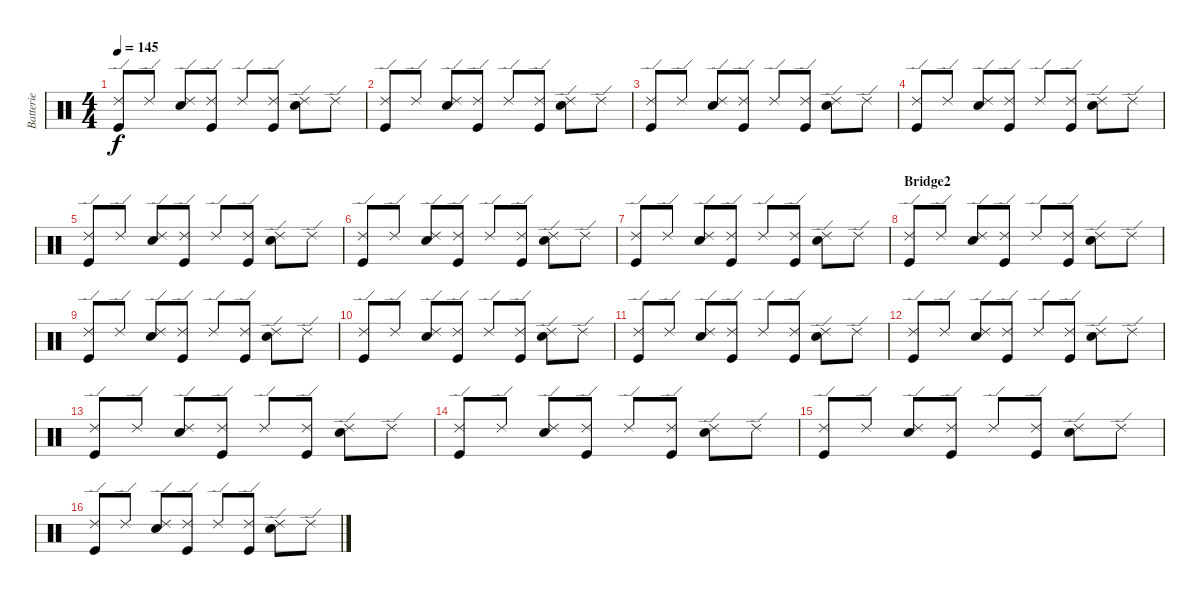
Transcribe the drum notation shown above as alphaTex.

\track ("Batterie" "Batterie") {instrument percussion}
\staff {score}
\articulation defaults
\ts (4 4)
\tempo 145
\clef neutral
\ks c
("Ride (edge) 2" "Kick (hit)").8{dy f} "Ride (edge) 2".8 ("Ride (edge) 2" "Snare (hit) 2").8 ("Ride (edge) 2" "Kick (hit)").8 "Ride (edge) 2".8 ("Ride (edge) 2" "Kick (hit)").8 ("Ride (edge) 2" "Snare (hit) 2").8 "Ride (edge) 2".8 |
("Ride (edge) 2" "Kick (hit)").8 "Ride (edge) 2".8 ("Ride (edge) 2" "Snare (hit) 2").8 ("Ride (edge) 2" "Kick (hit)").8 "Ride (edge) 2".8 ("Ride (edge) 2" "Kick (hit)").8 ("Ride (edge) 2" "Snare (hit) 2").8 "Ride (edge) 2".8 |
("Ride (edge) 2" "Kick (hit)").8 "Ride (edge) 2".8 ("Ride (edge) 2" "Snare (hit) 2").8 ("Ride (edge) 2" "Kick (hit)").8 "Ride (edge) 2".8 ("Ride (edge) 2" "Kick (hit)").8 ("Ride (edge) 2" "Snare (hit) 2").8 "Ride (edge) 2".8 |
("Ride (edge) 2" "Kick (hit)").8 "Ride (edge) 2".8 ("Ride (edge) 2" "Snare (hit) 2").8 ("Ride (edge) 2" "Kick (hit)").8 "Ride (edge) 2".8 ("Ride (edge) 2" "Kick (hit)").8 ("Ride (edge) 2" "Snare (hit) 2").8 "Ride (edge) 2".8 |
("Ride (edge) 2" "Kick (hit)").8 "Ride (edge) 2".8 ("Ride (edge) 2" "Snare (hit) 2").8 ("Ride (edge) 2" "Kick (hit)").8 "Ride (edge) 2".8 ("Ride (edge) 2" "Kick (hit)").8 ("Ride (edge) 2" "Snare (hit) 2").8 "Ride (edge) 2".8 |
("Ride (edge) 2" "Kick (hit)").8 "Ride (edge) 2".8 ("Ride (edge) 2" "Snare (hit) 2").8 ("Ride (edge) 2" "Kick (hit)").8 "Ride (edge) 2".8 ("Ride (edge) 2" "Kick (hit)").8 ("Ride (edge) 2" "Snare (hit) 2").8 "Ride (edge) 2".8 |
("Ride (edge) 2" "Kick (hit)").8 "Ride (edge) 2".8 ("Ride (edge) 2" "Snare (hit) 2").8 ("Ride (edge) 2" "Kick (hit)").8 "Ride (edge) 2".8 ("Ride (edge) 2" "Kick (hit)").8 ("Ride (edge) 2" "Snare (hit) 2").8 "Ride (edge) 2".8 |
\section ("" "Bridge2")
("Ride (edge) 2" "Kick (hit)").8 "Ride (edge) 2".8 ("Ride (edge) 2" "Snare (hit) 2").8 ("Ride (edge) 2" "Kick (hit)").8 "Ride (edge) 2".8 ("Ride (edge) 2" "Kick (hit)").8 ("Ride (edge) 2" "Snare (hit) 2").8 "Ride (edge) 2".8 |
("Ride (edge) 2" "Kick (hit)").8 "Ride (edge) 2".8 ("Ride (edge) 2" "Snare (hit) 2").8 ("Ride (edge) 2" "Kick (hit)").8 "Ride (edge) 2".8 ("Ride (edge) 2" "Kick (hit)").8 ("Ride (edge) 2" "Snare (hit) 2").8 "Ride (edge) 2".8 |
("Ride (edge) 2" "Kick (hit)").8 "Ride (edge) 2".8 ("Ride (edge) 2" "Snare (hit) 2").8 ("Ride (edge) 2" "Kick (hit)").8 "Ride (edge) 2".8 ("Ride (edge) 2" "Kick (hit)").8 ("Ride (edge) 2" "Snare (hit) 2").8 "Ride (edge) 2".8 |
("Ride (edge) 2" "Kick (hit)").8 "Ride (edge) 2".8 ("Ride (edge) 2" "Snare (hit) 2").8 ("Ride (edge) 2" "Kick (hit)").8 "Ride (edge) 2".8 ("Ride (edge) 2" "Kick (hit)").8 ("Ride (edge) 2" "Snare (hit) 2").8 "Ride (edge) 2".8 |
("Ride (edge) 2" "Kick (hit)").8 "Ride (edge) 2".8 ("Ride (edge) 2" "Snare (hit) 2").8 ("Ride (edge) 2" "Kick (hit)").8 "Ride (edge) 2".8 ("Ride (edge) 2" "Kick (hit)").8 ("Ride (edge) 2" "Snare (hit) 2").8 "Ride (edge) 2".8 |
("Ride (edge) 2" "Kick (hit)").8 "Ride (edge) 2".8 ("Ride (edge) 2" "Snare (hit) 2").8 ("Ride (edge) 2" "Kick (hit)").8 "Ride (edge) 2".8 ("Ride (edge) 2" "Kick (hit)").8 ("Ride (edge) 2" "Snare (hit) 2").8 "Ride (edge) 2".8 |
("Ride (edge) 2" "Kick (hit)").8 "Ride (edge) 2".8 ("Ride (edge) 2" "Snare (hit) 2").8 ("Ride (edge) 2" "Kick (hit)").8 "Ride (edge) 2".8 ("Ride (edge) 2" "Kick (hit)").8 ("Ride (edge) 2" "Snare (hit) 2").8 "Ride (edge) 2".8 |
("Ride (edge) 2" "Kick (hit)").8 "Ride (edge) 2".8 ("Ride (edge) 2" "Snare (hit) 2").8 ("Ride (edge) 2" "Kick (hit)").8 "Ride (edge) 2".8 ("Ride (edge) 2" "Kick (hit)").8 ("Ride (edge) 2" "Snare (hit) 2").8 "Ride (edge) 2".8 |
("Ride (edge) 2" "Kick (hit)").8 "Ride (edge) 2".8 ("Ride (edge) 2" "Snare (hit) 2").8 ("Ride (edge) 2" "Kick (hit)").8 "Ride (edge) 2".8 ("Ride (edge) 2" "Kick (hit)").8 ("Ride (edge) 2" "Snare (hit) 2").8 "Ride (edge) 2".8
